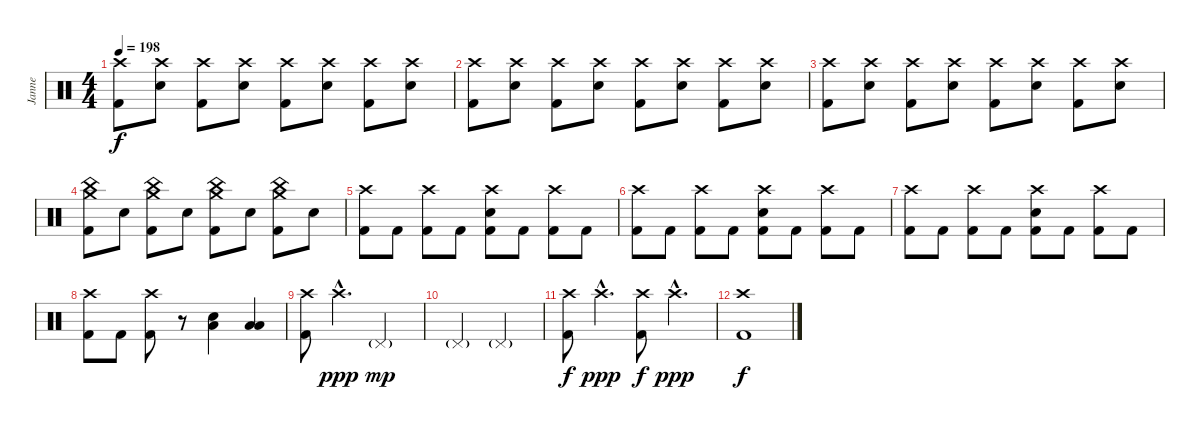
\track ("Janne" "Janne") {instrument percussion}
\staff {score}
\articulation defaults
\ts (4 4)
\tempo 198
\clef neutral
\ks c
("Crash high (hit)" "Kick (hit) 2").8{dy f} ("Crash high (hit)" "Electric Snare (hit)").8 ("Crash high (hit)" "Kick (hit) 2").8 ("Crash high (hit)" "Electric Snare (hit)").8 ("Crash high (hit)" "Kick (hit) 2").8 ("Crash high (hit)" "Electric Snare (hit)").8 ("Crash high (hit)" "Kick (hit) 2").8 ("Crash high (hit)" "Electric Snare (hit)").8 |
("Crash high (hit)" "Kick (hit) 2").8 ("Crash high (hit)" "Electric Snare (hit)").8 ("Crash high (hit)" "Kick (hit) 2").8 ("Crash high (hit)" "Electric Snare (hit)").8 ("Crash high (hit)" "Kick (hit) 2").8 ("Crash high (hit)" "Electric Snare (hit)").8 ("Crash high (hit)" "Kick (hit) 2").8 ("Crash high (hit)" "Electric Snare (hit)").8 |
("Crash high (hit)" "Kick (hit) 2").8 ("Crash high (hit)" "Electric Snare (hit)").8 ("Crash high (hit)" "Kick (hit) 2").8 ("Crash high (hit)" "Electric Snare (hit)").8 ("Crash high (hit)" "Kick (hit) 2").8 ("Crash high (hit)" "Electric Snare (hit)").8 ("Crash high (hit)" "Kick (hit) 2").8 ("Crash high (hit)" "Electric Snare (hit)").8 |
("Crash medium (hit)" "China (hit)" "Kick (hit) 2").8 "Electric Snare (hit)".8 ("Crash medium (hit)" "China (hit)" "Kick (hit) 2").8 "Electric Snare (hit)".8 ("Crash medium (hit)" "China (hit)" "Kick (hit) 2").8 "Electric Snare (hit)".8 ("Crash medium (hit)" "China (hit)" "Kick (hit) 2").8 "Electric Snare (hit)".8 |
("Crash high (hit)" "Kick (hit) 2").8 "Kick (hit) 2".8 ("Crash high (hit)" "Kick (hit) 2").8 "Kick (hit) 2".8 ("Crash high (hit)" "Electric Snare (hit)" "Kick (hit) 2").8 "Kick (hit) 2".8 ("Crash high (hit)" "Kick (hit) 2").8 "Kick (hit) 2".8 |
("Crash high (hit)" "Kick (hit) 2").8 "Kick (hit) 2".8 ("Crash high (hit)" "Kick (hit) 2").8 "Kick (hit) 2".8 ("Crash high (hit)" "Electric Snare (hit)" "Kick (hit) 2").8 "Kick (hit) 2".8 ("Crash high (hit)" "Kick (hit) 2").8 "Kick (hit) 2".8 |
("Crash high (hit)" "Kick (hit) 2").8 "Kick (hit) 2".8 ("Crash high (hit)" "Kick (hit) 2").8 "Kick (hit) 2".8 ("Crash high (hit)" "Electric Snare (hit)" "Kick (hit) 2").8 "Kick (hit) 2".8 ("Crash high (hit)" "Kick (hit) 2").8 "Kick (hit) 2".8 |
("Crash high (hit)" "Kick (hit) 2").8 "Kick (hit) 2".8 ("Crash high (hit)" "Kick (hit) 2").8 r.8 ("Electric Snare (hit)" "Low Floor Tom (hit)").4 ("Low Tom (hit)" "Low Floor Tom (hit)").4 |
("Crash high (hit)" "Kick (hit) 2").8 "Crash high (hit)"{hac}.4{d dy ppp} "Pedal Hi-Hat (hit)"{g}.2{dy mp} |
"Pedal Hi-Hat (hit)"{g}.2 "Pedal Hi-Hat (hit)"{g}.2 |
("Crash high (hit)" "Kick (hit) 2").8{dy f} "Crash high (hit)"{hac}.4{d dy ppp} ("Crash high (hit)" "Kick (hit) 2").8{dy f} "Crash high (hit)"{hac}.4{d dy ppp} |
("Crash high (hit)" "Kick (hit) 2").1{dy f}
